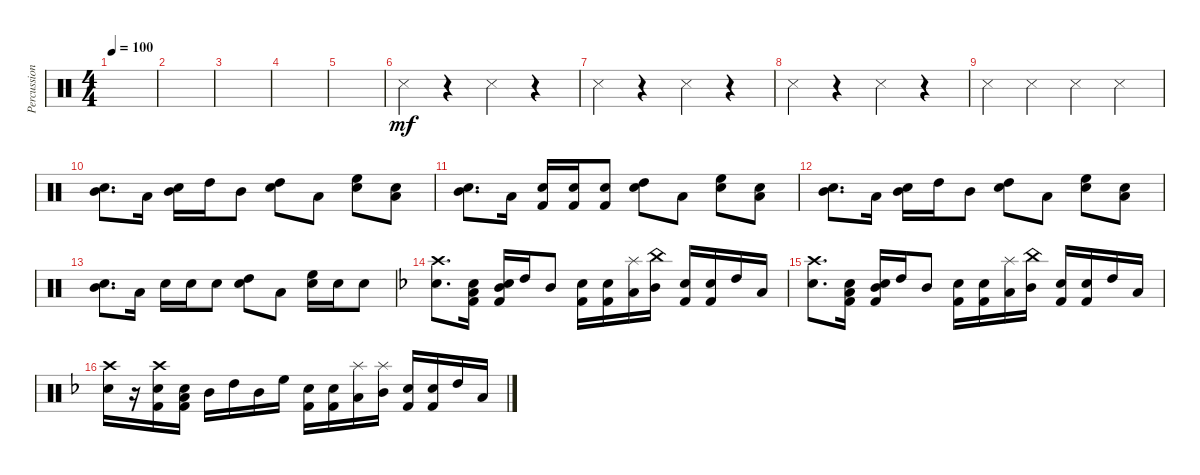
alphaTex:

\track ("Percussion" "Percussion") {instrument percussion}
\staff {score}
\articulation defaults
\ts (4 4)
\tempo 100
\clef neutral
\ks c
|
|
|
|
|
"Snare (side stick) 3".4{dy mf} r.4 "Snare (side stick) 3".4 r.4 |
"Snare (side stick) 3".4 r.4 "Snare (side stick) 3".4 r.4 |
"Snare (side stick) 3".4 r.4 "Snare (side stick) 3".4 r.4 |
"Snare (side stick) 3".4 "Snare (side stick) 3".4 "Snare (side stick) 3".4 "Snare (side stick) 3".4 |
("Mid Tom (hit)" "Snare (hit) 2").8{d} "Low Tom (hit)".16 ("Mid Tom (hit)" "Snare (hit) 2").16 "High Tom (hit)".16 "Mid Tom (hit)".8 ("High Tom (hit)" "Snare (hit) 2").8 "Low Floor Tom (hit)".8 ("High Floor Tom (hit)" "Snare (hit) 2").8 ("Low Tom (hit)" "Snare (hit) 2").8 |
("Mid Tom (hit)" "Snare (hit) 2").8{d} "Low Tom (hit)".16 ("Snare (hit) 2" "Kick (hit) 2").16 ("Snare (hit) 2" "Kick (hit) 2").16 ("Snare (hit) 2" "Kick (hit) 2").8 ("High Tom (hit)" "Snare (hit) 2").8 "Low Floor Tom (hit)".8 ("High Floor Tom (hit)" "Snare (hit) 2").8 ("Low Tom (hit)" "Snare (hit) 2").8 |
("Mid Tom (hit)" "Snare (hit) 2").8{d} "Low Tom (hit)".16 ("Mid Tom (hit)" "Snare (hit) 2").16 "High Tom (hit)".16 "Mid Tom (hit)".8 ("High Tom (hit)" "Snare (hit) 2").8 "Low Floor Tom (hit)".8 ("High Floor Tom (hit)" "Snare (hit) 2").8 ("Low Tom (hit)" "Snare (hit) 2").8 |
("Mid Tom (hit)" "Snare (hit) 2").8{d} "Low Tom (hit)".16 "Snare (hit) 2".16 "Snare (hit) 2".16 "Snare (hit) 2".8 ("High Tom (hit)" "Snare (hit) 2").8 "Low Floor Tom (hit)".8 ("High Floor Tom (hit)" "Snare (hit) 2").16 "Snare (hit) 2".16 "Snare (hit) 2".8 |
\ks dminor
("Crash high (hit)" "Snare (hit) 2").8{d} ("Low Tom (hit)" "Snare (hit) 2" "Kick (hit) 2").16 ("Mid Tom (hit)" "Snare (hit) 2" "Kick (hit) 2").16 "High Tom (hit)".16 "Mid Tom (hit)".8 ("Snare (hit) 2" "Kick (hit) 2").16 ("Snare (hit) 2" "Kick (hit) 2").16 ("Splash (hit)" "Low Tom (hit)").16 ("China (hit)" "Mid Tom (hit)").16 ("Snare (hit) 2" "Kick (hit) 2").16 ("Snare (hit) 2" "Kick (hit) 2").16 "High Tom (hit)".16 "Low Tom (hit)".16 |
("Crash high (hit)" "Snare (hit) 2").8{d} ("Low Tom (hit)" "Snare (hit) 2" "Kick (hit) 2").16 ("Mid Tom (hit)" "Snare (hit) 2" "Kick (hit) 2").16 "High Tom (hit)".16 "Mid Tom (hit)".8 ("Snare (hit) 2" "Kick (hit) 2").16 ("Snare (hit) 2" "Kick (hit) 2").16 ("Splash (hit)" "Low Tom (hit)").16 ("China (hit)" "Mid Tom (hit)").16 ("Snare (hit) 2" "Kick (hit) 2").16 ("Snare (hit) 2" "Kick (hit) 2").16 "High Tom (hit)".16 "Low Tom (hit)".16 |
("Crash high (hit)" "Snare (hit) 2").16 r.16 ("Crash high (hit)" "Snare (hit) 2" "Kick (hit) 2").16 ("Low Tom (hit)" "Snare (hit) 2" "Kick (hit) 2").16 "Mid Tom (hit)".16 "High Tom (hit)".16 "Mid Tom (hit)".16 "High Floor Tom (hit)".16 ("Snare (hit) 2" "Kick (hit) 2").16 ("Snare (hit) 2" "Kick (hit) 2").16 ("Splash (hit)" "Low Tom (hit)").16 ("Splash (hit)" "Mid Tom (hit)").16 ("Snare (hit) 2" "Kick (hit) 2").16 ("Snare (hit) 2" "Kick (hit) 2").16 "High Tom (hit)".16 "Low Tom (hit)".16
